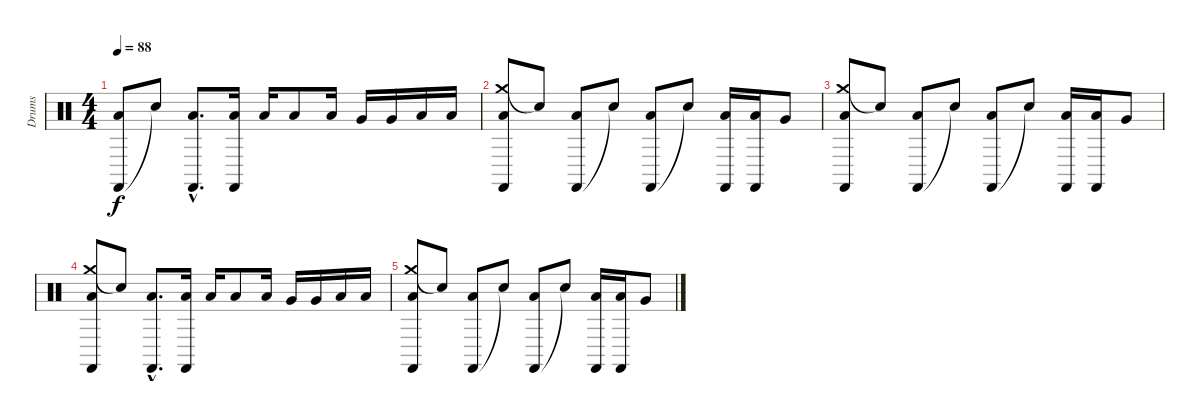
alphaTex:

\track ("Drums" "Drums") {instrument percussion}
\staff {score}
\articulation defaults
\ts (4 4)
\tempo 88
\clef neutral
\ks c
("Castanets (hit)" "Low Floor Tom (hit)").8{dy f} "Snare (hit)"{t}.8 ("Castanets (hit)"{hac} "Low Floor Tom (hit)"{hac}).8{d} ("Castanets (hit)" "Low Floor Tom (hit)").16 "Low Tom (hit)".16 "Low Tom (hit)".8 "Low Tom (hit)".16 "Very Low Tom (hit)".16 "Very Low Tom (hit)".16 "Low Floor Tom (hit)".16 "Low Floor Tom (hit)".16 |
("Crash medium (hit)" "Castanets (hit)" "Low Floor Tom (hit)").8 "Snare (hit)"{t}.8 ("Castanets (hit)" "Low Floor Tom (hit)").8 "Snare (hit)"{t}.8 ("Castanets (hit)" "Low Floor Tom (hit)").8 "Snare (hit)"{t}.8 ("Castanets (hit)" "Low Floor Tom (hit)").16 ("Castanets (hit)" "Low Floor Tom (hit)").16 "Very Low Tom (hit)".8 |
("Crash medium (hit)" "Castanets (hit)" "Low Floor Tom (hit)").8 "Snare (hit)"{t}.8 ("Castanets (hit)" "Low Floor Tom (hit)").8 "Snare (hit)"{t}.8 ("Castanets (hit)" "Low Floor Tom (hit)").8 "Snare (hit)"{t}.8 ("Castanets (hit)" "Low Floor Tom (hit)").16 ("Castanets (hit)" "Low Floor Tom (hit)").16 "Very Low Tom (hit)".8 |
("Crash medium (hit)" "Castanets (hit)" "Low Floor Tom (hit)").8 "Snare (hit)"{t}.8 ("Castanets (hit)"{hac} "Low Floor Tom (hit)"{hac}).8{d} ("Castanets (hit)" "Low Floor Tom (hit)").16 "Low Tom (hit)".16 "Low Tom (hit)".8 "Low Tom (hit)".16 "Very Low Tom (hit)".16 "Very Low Tom (hit)".16 "Low Floor Tom (hit)".16 "Low Floor Tom (hit)".16 |
("Crash medium (hit)" "Castanets (hit)" "Low Floor Tom (hit)").8 "Snare (hit)"{t}.8 ("Castanets (hit)" "Low Floor Tom (hit)").8 "Snare (hit)"{t}.8 ("Castanets (hit)" "Low Floor Tom (hit)").8 "Snare (hit)"{t}.8 ("Castanets (hit)" "Low Floor Tom (hit)").16 ("Castanets (hit)" "Low Floor Tom (hit)").16 "Very Low Tom (hit)".8
